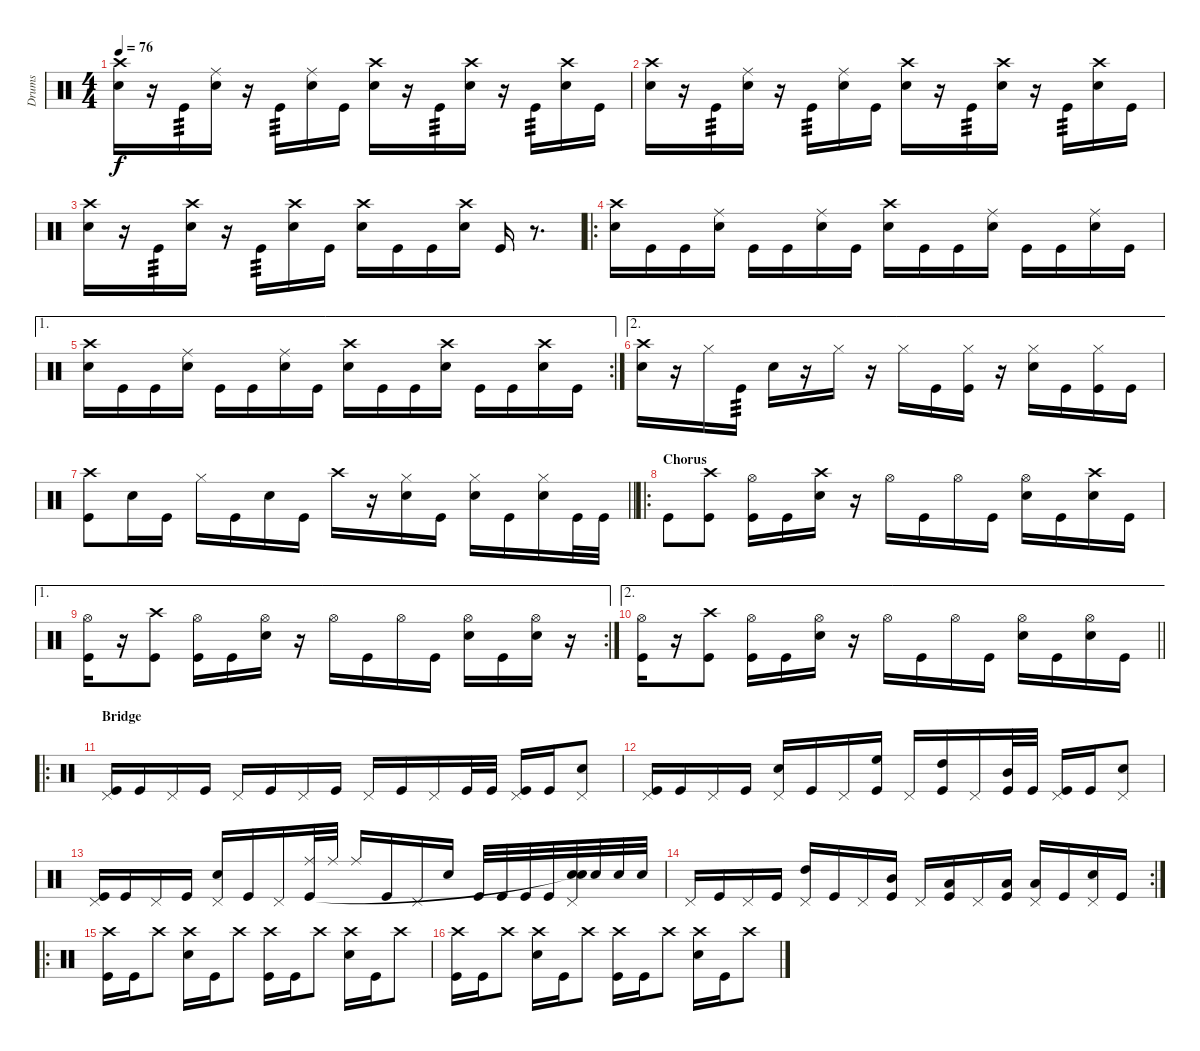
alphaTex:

\track ("Drums" "Drums") {instrument percussion}
\staff {score}
\articulation defaults
\ts (4 4)
\tempo 76
\clef neutral
\ks c
("Crash high (hit)" "Electric Snare (hit)").16{dy f} r.16 "Kick (hit)".16{tp 3} ("Ride (middle)" "Electric Snare (hit)").16 r.16 "Kick (hit)".16{tp 3} ("Ride (middle)" "Electric Snare (hit)").16 "Kick (hit)".16 ("Crash high (hit)" "Electric Snare (hit)").16 r.16 "Kick (hit)".16{tp 3} ("Crash high (hit)" "Electric Snare (hit)").16 r.16 "Kick (hit)".16{tp 3} ("Crash high (hit)" "Electric Snare (hit)").16 "Kick (hit)".16 |
("Crash high (hit)" "Electric Snare (hit)").16 r.16 "Kick (hit)".16{tp 3} ("Ride (middle)" "Electric Snare (hit)").16 r.16 "Kick (hit)".16{tp 3} ("Ride (middle)" "Electric Snare (hit)").16 "Kick (hit)".16 ("Crash high (hit)" "Electric Snare (hit)").16 r.16 "Kick (hit)".16{tp 3} ("Crash high (hit)" "Electric Snare (hit)").16 r.16 "Kick (hit)".16{tp 3} ("Crash high (hit)" "Electric Snare (hit)").16 "Kick (hit)".16 |
("Crash high (hit)" "Electric Snare (hit)").16 r.16 "Kick (hit)".16{tp 3} ("Crash high (hit)" "Electric Snare (hit)").16 r.16 "Kick (hit)".16{tp 3} ("Crash high (hit)" "Electric Snare (hit)").16 "Kick (hit)".16 ("Crash high (hit)" "Electric Snare (hit)").16 "Kick (hit)".16 "Kick (hit)".16 ("Crash high (hit)" "Electric Snare (hit)").16 "Kick (hit)".16 r.8{d} |
\ro
("Crash high (hit)" "Snare (hit) 2").16 "Kick (hit)".16 "Kick (hit)".16 ("Ride (middle)" "Snare (hit) 2").16 "Kick (hit)".16 "Kick (hit)".16 ("Ride (middle)" "Snare (hit) 2").16 "Kick (hit)".16 ("Crash high (hit)" "Snare (hit) 2").16 "Kick (hit)".16 "Kick (hit)".16 ("Ride (middle)" "Snare (hit) 2").16 "Kick (hit)".16 "Kick (hit)".16 ("Ride (middle)" "Snare (hit) 2").16 "Kick (hit)".16 |
\ae 1
\rc 2
("Crash high (hit)" "Snare (hit) 2").16 "Kick (hit)".16 "Kick (hit)".16 ("Ride (middle)" "Snare (hit) 2").16 "Kick (hit)".16 "Kick (hit)".16 ("Ride (middle)" "Snare (hit) 2").16 "Kick (hit)".16 ("Crash high (hit)" "Snare (hit) 2").16 "Kick (hit)".16 "Kick (hit)".16 ("Crash high (hit)" "Snare (hit) 2").16 "Kick (hit)".16 "Kick (hit)".16 ("Crash high (hit)" "Snare (hit) 2").16 "Kick (hit)".16 |
\ae 2
("Crash high (hit)" "Electric Snare (hit)").16 r.16 "Hi-Hat (closed)".16 "Kick (hit)".16{tp 3} "Electric Snare (hit)".16 r.16 "Hi-Hat (closed)".16 r.16 "Hi-Hat (closed)".16 "Kick (hit)".16 ("Hi-Hat (closed)" "Kick (hit)").16 r.16 ("Hi-Hat (closed)" "Electric Snare (hit)").16 "Kick (hit)".16 ("Hi-Hat (closed)" "Kick (hit)").16 "Kick (hit)".16 |
\barLineRight lightlight
("Crash high (hit)" "Kick (hit)").8 "Electric Snare (hit)".16 "Kick (hit)".16 "Hi-Hat (closed)".16 "Kick (hit)".16 "Electric Snare (hit)".16 "Kick (hit)".16 "Crash high (hit)".16 r.16 ("Hi-Hat (closed)" "Electric Snare (hit)").16 "Kick (hit)".16 ("Hi-Hat (closed)" "Electric Snare (hit)").16 "Kick (hit)".16 ("Hi-Hat (closed)" "Electric Snare (hit)").16 "Kick (hit)".32 "Kick (hit)".32 |
\ro
\section ("" "Chorus")
"Kick (hit)".8 ("Crash high (hit)" "Kick (hit)").8 ("Hi-Hat (open)" "Kick (hit)").16 "Kick (hit)".16 ("Crash high (hit)" "Electric Snare (hit)").16 r.16 "Hi-Hat (open)".16 "Kick (hit)".16 "Hi-Hat (open)".16 "Kick (hit)".16 ("Hi-Hat (open)" "Electric Snare (hit)").16 "Kick (hit)".16 ("Crash high (hit)" "Electric Snare (hit)").16 "Kick (hit)".16 |
\ae 1
\rc 2
("Hi-Hat (open)" "Kick (hit)").16 r.16 ("Crash high (hit)" "Kick (hit)").8 ("Hi-Hat (open)" "Kick (hit)").16 "Kick (hit)".16 ("Hi-Hat (open)" "Electric Snare (hit)").16 r.16 "Hi-Hat (open)".16 "Kick (hit)".16 "Hi-Hat (open)".16 "Kick (hit)".16 ("Hi-Hat (open)" "Electric Snare (hit)").16 "Kick (hit)".16 ("Hi-Hat (open)" "Electric Snare (hit)").16 r.16 |
\ae 2
\barLineRight lightlight
("Hi-Hat (open)" "Kick (hit)").16 r.16 ("Crash high (hit)" "Kick (hit)").8 ("Hi-Hat (open)" "Kick (hit)").16 "Kick (hit)".16 ("Hi-Hat (open)" "Electric Snare (hit)").16 r.16 "Hi-Hat (open)".16 "Kick (hit)".16 "Hi-Hat (open)".16 "Kick (hit)".16 ("Hi-Hat (open)" "Electric Snare (hit)").16 "Kick (hit)".16 ("Hi-Hat (open)" "Electric Snare (hit)").16 "Kick (hit)".16 |
\ro
\section ("" "Bridge")
("Pedal Hi-Hat (hit)" "Kick (hit)").16 "Kick (hit)".16 "Pedal Hi-Hat (hit)".16 "Kick (hit)".16 "Pedal Hi-Hat (hit)".16 "Kick (hit)".16 "Pedal Hi-Hat (hit)".16 "Kick (hit)".16 "Pedal Hi-Hat (hit)".16 "Kick (hit)".16 "Pedal Hi-Hat (hit)".16 "Kick (hit)".32 "Kick (hit)".32 ("Pedal Hi-Hat (hit)" "Kick (hit)").16 "Kick (hit)".16 ("Pedal Hi-Hat (hit)" "Electric Snare (hit)").8 |
("Pedal Hi-Hat (hit)" "Kick (hit)").16 "Kick (hit)".16 "Pedal Hi-Hat (hit)".16 "Kick (hit)".16 ("Pedal Hi-Hat (hit)" "Electric Snare (hit)").16 "Kick (hit)".16 "Pedal Hi-Hat (hit)".16 ("High Floor Tom (hit)" "Kick (hit)").16 "Pedal Hi-Hat (hit)".16 ("High Tom (hit)" "Kick (hit)").16 "Pedal Hi-Hat (hit)".16 ("Mid Tom (hit)" "Kick (hit)").32 "Kick (hit)".32 ("Pedal Hi-Hat (hit)" "Kick (hit)").16 "Kick (hit)".16 ("Pedal Hi-Hat (hit)" "Electric Snare (hit)").8 |
("Pedal Hi-Hat (hit)" "Kick (hit)").16 "Kick (hit)".16 "Pedal Hi-Hat (hit)".16 "Kick (hit)".16 ("Pedal Hi-Hat (hit)" "Electric Snare (hit)").16 "Kick (hit)".16 "Pedal Hi-Hat (hit)".16 ("Ride (middle)" "Kick (hit)").32 "Ride (middle)".32 "Ride (middle)".16 "Kick (hit)".16 "Pedal Hi-Hat (hit)".16 "Electric Snare (hit)".16 "Kick (hit)".32 "Kick (hit)".32 "Kick (hit)".32 "Kick (hit)".32 ("Pedal Hi-Hat (hit)" "Snare (hit)"{t} "Electric Snare (hit)").32 "Electric Snare (hit)".32 "Electric Snare (hit)".32 "Electric Snare (hit)".32 |
\rc 2 "Pedal Hi-Hat (hit)".16 "Kick (hit)".16 "Pedal Hi-Hat (hit)".16 "Kick (hit)".16
("Pedal Hi-Hat (hit)" "High Tom (hit)").16 "Kick (hit)".16 "Pedal Hi-Hat (hit)".16 ("Mid Tom (hit)" "Kick (hit)").16 "Pedal Hi-Hat (hit)".16 ("Low Tom (hit)" "Kick (hit)").16 "Pedal Hi-Hat (hit)".16 ("Low Floor Tom (hit)" "Kick (hit)").16 ("Pedal Hi-Hat (hit)" "Low Floor Tom (hit)").16 "Kick (hit)".16 ("Pedal Hi-Hat (hit)" "Electric Snare (hit)").16 "Kick (hit)".16 |
\ro
("Crash high (hit)" "Kick (hit)").16 "Kick (hit)".16 "Crash high (hit)".8 ("Crash high (hit)" "Electric Snare (hit)").16 "Kick (hit)".16 "Crash high (hit)".8 ("Crash high (hit)" "Kick (hit)").16 "Kick (hit)".16 "Crash high (hit)".8 ("Crash high (hit)" "Electric Snare (hit)").16 "Kick (hit)".16 "Crash high (hit)".8 |
("Crash high (hit)" "Kick (hit)").16 "Kick (hit)".16 "Crash high (hit)".8 ("Crash high (hit)" "Electric Snare (hit)").16 "Kick (hit)".16 "Crash high (hit)".8 ("Crash high (hit)" "Kick (hit)").16 "Kick (hit)".16 "Crash high (hit)".8 ("Crash high (hit)" "Electric Snare (hit)").16 "Kick (hit)".16 "Crash high (hit)".8
